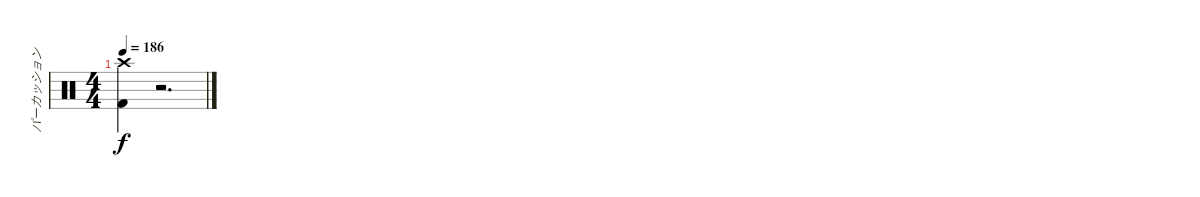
\track ("パーカッション" "パーカッション") {instrument percussion}
\staff {score}
\articulation defaults
\ts (4 4)
\tempo 186
\clef neutral
\ks c
("Crash high (hit)" "Kick (hit) 2").4{dy f} r.2{d}
